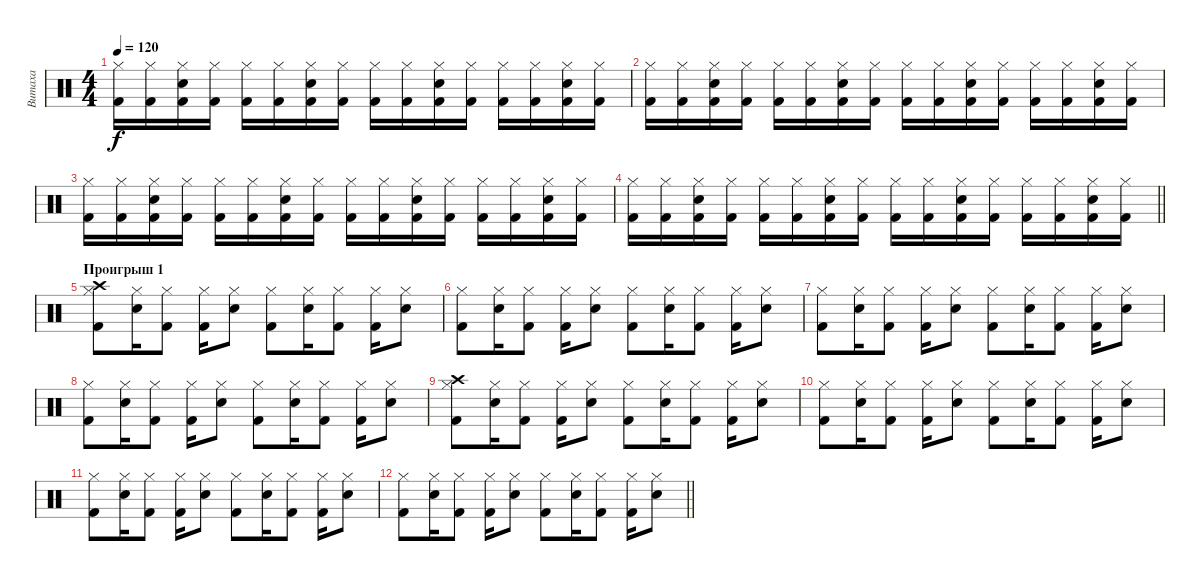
\track ("Витаха" "Витаха") {instrument percussion}
\staff {score}
\articulation defaults
\ts (4 4)
\tempo 120
\clef neutral
\ks c
("Kick (hit) 2" "Hi-Hat (closed)").16{dy f} ("Kick (hit) 2" "Hi-Hat (closed)").16 ("Electric Snare (hit)" "Hi-Hat (closed)" "Kick (hit) 2").16 ("Kick (hit) 2" "Hi-Hat (closed)").16 ("Kick (hit) 2" "Hi-Hat (closed)").16 ("Kick (hit) 2" "Hi-Hat (closed)").16 ("Electric Snare (hit)" "Hi-Hat (closed)" "Kick (hit) 2").16 ("Kick (hit) 2" "Hi-Hat (closed)").16 ("Kick (hit) 2" "Hi-Hat (closed)").16 ("Kick (hit) 2" "Hi-Hat (closed)").16 ("Electric Snare (hit)" "Hi-Hat (closed)" "Kick (hit) 2").16 ("Kick (hit) 2" "Hi-Hat (closed)").16 ("Kick (hit) 2" "Hi-Hat (closed)").16 ("Kick (hit) 2" "Hi-Hat (closed)").16 ("Electric Snare (hit)" "Hi-Hat (closed)" "Kick (hit) 2").16 ("Kick (hit) 2" "Hi-Hat (closed)").16 |
("Kick (hit) 2" "Hi-Hat (closed)").16 ("Kick (hit) 2" "Hi-Hat (closed)").16 ("Electric Snare (hit)" "Hi-Hat (closed)" "Kick (hit) 2").16 ("Kick (hit) 2" "Hi-Hat (closed)").16 ("Kick (hit) 2" "Hi-Hat (closed)").16 ("Kick (hit) 2" "Hi-Hat (closed)").16 ("Electric Snare (hit)" "Hi-Hat (closed)" "Kick (hit) 2").16 ("Kick (hit) 2" "Hi-Hat (closed)").16 ("Kick (hit) 2" "Hi-Hat (closed)").16 ("Kick (hit) 2" "Hi-Hat (closed)").16 ("Electric Snare (hit)" "Hi-Hat (closed)" "Kick (hit) 2").16 ("Kick (hit) 2" "Hi-Hat (closed)").16 ("Kick (hit) 2" "Hi-Hat (closed)").16 ("Kick (hit) 2" "Hi-Hat (closed)").16 ("Electric Snare (hit)" "Hi-Hat (closed)" "Kick (hit) 2").16 ("Kick (hit) 2" "Hi-Hat (closed)").16 |
("Kick (hit) 2" "Hi-Hat (closed)").16 ("Kick (hit) 2" "Hi-Hat (closed)").16 ("Electric Snare (hit)" "Hi-Hat (closed)" "Kick (hit) 2").16 ("Kick (hit) 2" "Hi-Hat (closed)").16 ("Kick (hit) 2" "Hi-Hat (closed)").16 ("Kick (hit) 2" "Hi-Hat (closed)").16 ("Electric Snare (hit)" "Hi-Hat (closed)" "Kick (hit) 2").16 ("Kick (hit) 2" "Hi-Hat (closed)").16 ("Kick (hit) 2" "Hi-Hat (closed)").16 ("Kick (hit) 2" "Hi-Hat (closed)").16 ("Electric Snare (hit)" "Hi-Hat (closed)" "Kick (hit) 2").16 ("Kick (hit) 2" "Hi-Hat (closed)").16 ("Kick (hit) 2" "Hi-Hat (closed)").16 ("Kick (hit) 2" "Hi-Hat (closed)").16 ("Electric Snare (hit)" "Hi-Hat (closed)" "Kick (hit) 2").16 ("Kick (hit) 2" "Hi-Hat (closed)").16 |
\barLineRight lightlight
("Kick (hit) 2" "Hi-Hat (closed)").16 ("Kick (hit) 2" "Hi-Hat (closed)").16 ("Electric Snare (hit)" "Hi-Hat (closed)" "Kick (hit) 2").16 ("Kick (hit) 2" "Hi-Hat (closed)").16 ("Kick (hit) 2" "Hi-Hat (closed)").16 ("Kick (hit) 2" "Hi-Hat (closed)").16 ("Electric Snare (hit)" "Hi-Hat (closed)" "Kick (hit) 2").16 ("Kick (hit) 2" "Hi-Hat (closed)").16 ("Kick (hit) 2" "Hi-Hat (closed)").16 ("Kick (hit) 2" "Hi-Hat (closed)").16 ("Electric Snare (hit)" "Hi-Hat (closed)" "Kick (hit) 2").16 ("Kick (hit) 2" "Hi-Hat (closed)").16 ("Kick (hit) 2" "Hi-Hat (closed)").16 ("Kick (hit) 2" "Hi-Hat (closed)").16 ("Electric Snare (hit)" "Hi-Hat (closed)" "Kick (hit) 2").16 ("Kick (hit) 2" "Hi-Hat (closed)").16 |
\section ("" "Проигрыш 1")
("Kick (hit) 2" "Crash high (hit)" "Hi-Hat (closed)").8 ("Electric Snare (hit)" "Hi-Hat (closed)").16 ("Kick (hit) 2" "Hi-Hat (closed)").8 ("Kick (hit) 2" "Hi-Hat (closed)").16 ("Electric Snare (hit)" "Hi-Hat (closed)").8 ("Kick (hit) 2" "Hi-Hat (closed)").8 ("Electric Snare (hit)" "Hi-Hat (closed)").16 ("Kick (hit) 2" "Hi-Hat (closed)").8 ("Kick (hit) 2" "Hi-Hat (closed)").16 ("Electric Snare (hit)" "Hi-Hat (closed)").8 |
("Kick (hit) 2" "Hi-Hat (closed)").8 ("Electric Snare (hit)" "Hi-Hat (closed)").16 ("Kick (hit) 2" "Hi-Hat (closed)").8 ("Kick (hit) 2" "Hi-Hat (closed)").16 ("Electric Snare (hit)" "Hi-Hat (closed)").8 ("Kick (hit) 2" "Hi-Hat (closed)").8 ("Electric Snare (hit)" "Hi-Hat (closed)").16 ("Kick (hit) 2" "Hi-Hat (closed)").8 ("Kick (hit) 2" "Hi-Hat (closed)").16 ("Electric Snare (hit)" "Hi-Hat (closed)").8 |
("Kick (hit) 2" "Hi-Hat (closed)").8 ("Electric Snare (hit)" "Hi-Hat (closed)").16 ("Kick (hit) 2" "Hi-Hat (closed)").8 ("Kick (hit) 2" "Hi-Hat (closed)").16 ("Electric Snare (hit)" "Hi-Hat (closed)").8 ("Kick (hit) 2" "Hi-Hat (closed)").8 ("Electric Snare (hit)" "Hi-Hat (closed)").16 ("Kick (hit) 2" "Hi-Hat (closed)").8 ("Kick (hit) 2" "Hi-Hat (closed)").16 ("Electric Snare (hit)" "Hi-Hat (closed)").8 |
("Kick (hit) 2" "Hi-Hat (closed)").8 ("Electric Snare (hit)" "Hi-Hat (closed)").16 ("Kick (hit) 2" "Hi-Hat (closed)").8 ("Kick (hit) 2" "Hi-Hat (closed)").16 ("Electric Snare (hit)" "Hi-Hat (closed)").8 ("Kick (hit) 2" "Hi-Hat (closed)").8 ("Electric Snare (hit)" "Hi-Hat (closed)").16 ("Kick (hit) 2" "Hi-Hat (closed)").8 ("Kick (hit) 2" "Hi-Hat (closed)").16 ("Electric Snare (hit)" "Hi-Hat (closed)").8 |
("Kick (hit) 2" "Crash high (hit)" "Hi-Hat (closed)").8 ("Electric Snare (hit)" "Hi-Hat (closed)").16 ("Kick (hit) 2" "Hi-Hat (closed)").8 ("Kick (hit) 2" "Hi-Hat (closed)").16 ("Electric Snare (hit)" "Hi-Hat (closed)").8 ("Kick (hit) 2" "Hi-Hat (closed)").8 ("Electric Snare (hit)" "Hi-Hat (closed)").16 ("Kick (hit) 2" "Hi-Hat (closed)").8 ("Kick (hit) 2" "Hi-Hat (closed)").16 ("Electric Snare (hit)" "Hi-Hat (closed)").8 |
("Kick (hit) 2" "Hi-Hat (closed)").8 ("Electric Snare (hit)" "Hi-Hat (closed)").16 ("Kick (hit) 2" "Hi-Hat (closed)").8 ("Kick (hit) 2" "Hi-Hat (closed)").16 ("Electric Snare (hit)" "Hi-Hat (closed)").8 ("Kick (hit) 2" "Hi-Hat (closed)").8 ("Electric Snare (hit)" "Hi-Hat (closed)").16 ("Kick (hit) 2" "Hi-Hat (closed)").8 ("Kick (hit) 2" "Hi-Hat (closed)").16 ("Electric Snare (hit)" "Hi-Hat (closed)").8 |
("Kick (hit) 2" "Hi-Hat (closed)").8 ("Electric Snare (hit)" "Hi-Hat (closed)").16 ("Kick (hit) 2" "Hi-Hat (closed)").8 ("Kick (hit) 2" "Hi-Hat (closed)").16 ("Electric Snare (hit)" "Hi-Hat (closed)").8 ("Kick (hit) 2" "Hi-Hat (closed)").8 ("Electric Snare (hit)" "Hi-Hat (closed)").16 ("Kick (hit) 2" "Hi-Hat (closed)").8 ("Kick (hit) 2" "Hi-Hat (closed)").16 ("Electric Snare (hit)" "Hi-Hat (closed)").8 |
\barLineRight lightlight
("Kick (hit) 2" "Hi-Hat (closed)").8 ("Electric Snare (hit)" "Hi-Hat (closed)").16 ("Kick (hit) 2" "Hi-Hat (closed)").8 ("Kick (hit) 2" "Hi-Hat (closed)").16 ("Electric Snare (hit)" "Hi-Hat (closed)").8 ("Kick (hit) 2" "Hi-Hat (closed)").8 ("Electric Snare (hit)" "Hi-Hat (closed)").16 ("Kick (hit) 2" "Hi-Hat (closed)").8 ("Kick (hit) 2" "Hi-Hat (closed)").16 ("Electric Snare (hit)" "Hi-Hat (closed)").8
